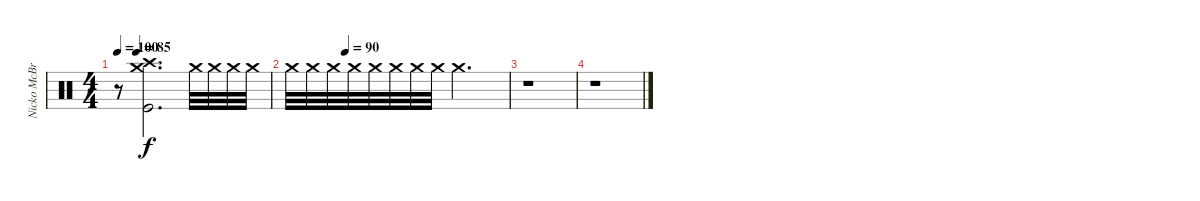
\track ("Nicko McBrain" "Nicko McBr") {instrument percussion}
\staff {score}
\articulation defaults
\ts (4 4)
\tempo 100
\tempo (85 0.125)
\clef neutral
\ks c
r.8{dy f} ("Crash medium (hit)" "Crash high (hit)" "Kick (hit)").2{d volume 0} "Crash medium (hit)".32{volume 10} "Crash medium (hit)".32 "Crash medium (hit)".32 "Crash medium (hit)".32 |
\tempo (90 0.25)
"Crash medium (hit)".32 "Crash medium (hit)".32 "Crash medium (hit)".32 "Crash medium (hit)".32 "Crash medium (hit)".32 "Crash medium (hit)".32 "Crash medium (hit)".32 "Crash medium (hit)".32 "Crash medium (hit)".2{d} |
r.1 |
r.1
